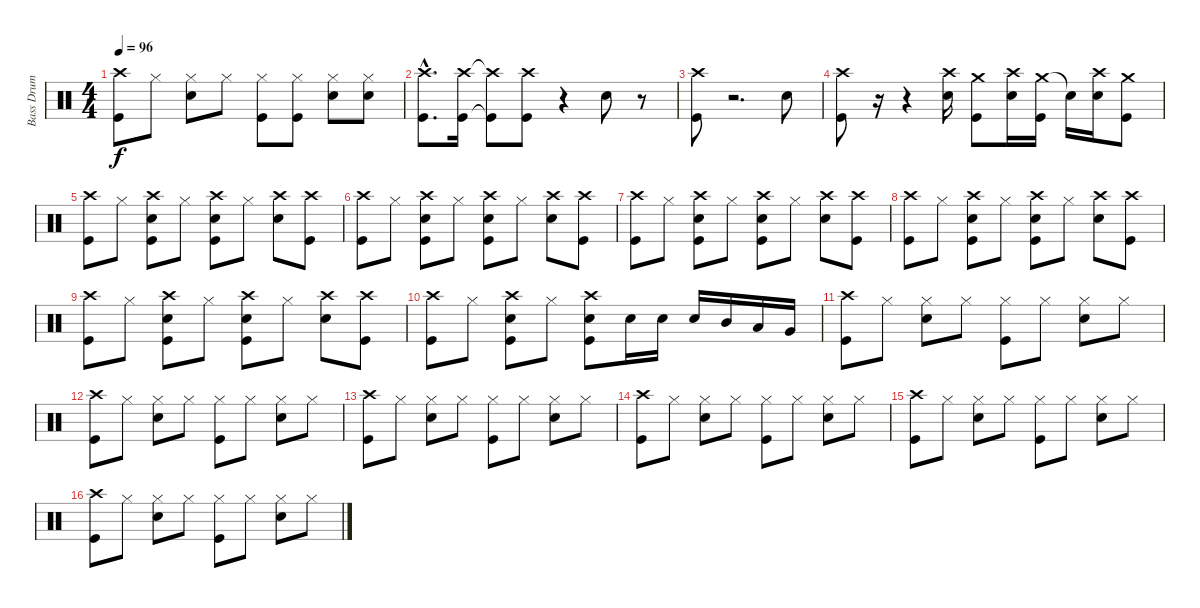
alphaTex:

\track ("Bass Drum" "Bass Drum") {instrument percussion}
\staff {score}
\articulation defaults
\ts (4 4)
\tempo 96
\clef neutral
\ks c
("Crash high (hit)" "Kick (hit)").8{dy f} "Hi-Hat (closed)".8 ("Hi-Hat (closed)" "Electric Snare (hit)").8 "Hi-Hat (closed)".8 ("Hi-Hat (closed)" "Kick (hit)").8 ("Hi-Hat (closed)" "Kick (hit)").8 ("Hi-Hat (closed)" "Electric Snare (hit)").8 ("Hi-Hat (closed)" "Electric Snare (hit)").8 |
("Crash high (hit)"{hac} "Kick (hit)"{hac}).8{d} ("Crash high (hit)" "Kick (hit)").16 ("Crash high (hit)"{t} "Kick (hit)"{t}).8 ("Crash high (hit)" "Kick (hit)").8 r.4 "Electric Snare (hit)".8 r.8 |
("Crash high (hit)" "Kick (hit)").8 r.2{d} "Electric Snare (hit)".8 |
("Crash high (hit)" "Kick (hit)").8 r.16 r.4 ("Crash high (hit)" "Electric Snare (hit)").16 ("Crash medium (hit)" "Kick (hit)").8 ("Crash high (hit)" "Electric Snare (hit)").16 ("Crash medium (hit)" "Kick (hit)").16 "Snare (hit)"{t}.16 ("Crash high (hit)" "Electric Snare (hit)").16 ("Crash medium (hit)" "Kick (hit)").8 |
("Crash high (hit)" "Kick (hit)").8 "Hi-Hat (closed)".8 ("Crash high (hit)" "Electric Snare (hit)" "Kick (hit)").8 "Hi-Hat (closed)".8 ("Crash high (hit)" "Electric Snare (hit)" "Kick (hit)").8 "Hi-Hat (closed)".8 ("Crash high (hit)" "Electric Snare (hit)").8 ("Crash high (hit)" "Kick (hit)").8 |
("Crash high (hit)" "Kick (hit)").8 "Hi-Hat (closed)".8 ("Crash high (hit)" "Electric Snare (hit)" "Kick (hit)").8 "Hi-Hat (closed)".8 ("Crash high (hit)" "Electric Snare (hit)" "Kick (hit)").8 "Hi-Hat (closed)".8 ("Crash high (hit)" "Electric Snare (hit)").8 ("Crash high (hit)" "Kick (hit)").8 |
("Crash high (hit)" "Kick (hit)").8 "Hi-Hat (closed)".8 ("Crash high (hit)" "Electric Snare (hit)" "Kick (hit)").8 "Hi-Hat (closed)".8 ("Crash high (hit)" "Electric Snare (hit)" "Kick (hit)").8 "Hi-Hat (closed)".8 ("Crash high (hit)" "Electric Snare (hit)").8 ("Crash high (hit)" "Kick (hit)").8 |
("Crash high (hit)" "Kick (hit)").8 "Hi-Hat (closed)".8 ("Crash high (hit)" "Electric Snare (hit)" "Kick (hit)").8 "Hi-Hat (closed)".8 ("Crash high (hit)" "Electric Snare (hit)" "Kick (hit)").8 "Hi-Hat (closed)".8 ("Crash high (hit)" "Electric Snare (hit)").8 ("Crash high (hit)" "Kick (hit)").8 |
("Crash high (hit)" "Kick (hit)").8 "Hi-Hat (closed)".8 ("Crash high (hit)" "Electric Snare (hit)" "Kick (hit)").8 "Hi-Hat (closed)".8 ("Crash high (hit)" "Electric Snare (hit)" "Kick (hit)").8 "Hi-Hat (closed)".8 ("Crash high (hit)" "Electric Snare (hit)").8 ("Crash high (hit)" "Kick (hit)").8 |
("Crash high (hit)" "Kick (hit)").8 "Hi-Hat (closed)".8 ("Crash high (hit)" "Electric Snare (hit)" "Kick (hit)").8 "Hi-Hat (closed)".8 ("Crash high (hit)" "Electric Snare (hit)" "Kick (hit)").8 "Electric Snare (hit)".16 "Electric Snare (hit)".16 "Electric Snare (hit)".16 "Mid Tom (hit)".16 "Low Tom (hit)".16 "Very Low Tom (hit)".16 |
("Crash high (hit)" "Kick (hit)").8 "Hi-Hat (closed)".8 ("Hi-Hat (closed)" "Electric Snare (hit)").8 "Hi-Hat (closed)".8 ("Hi-Hat (closed)" "Kick (hit)").8 "Hi-Hat (closed)".8 ("Hi-Hat (closed)" "Electric Snare (hit)").8 "Hi-Hat (closed)".8 |
("Crash high (hit)" "Kick (hit)").8 "Hi-Hat (closed)".8 ("Hi-Hat (closed)" "Electric Snare (hit)").8 "Hi-Hat (closed)".8 ("Hi-Hat (closed)" "Kick (hit)").8 "Hi-Hat (closed)".8 ("Hi-Hat (closed)" "Electric Snare (hit)").8 "Hi-Hat (closed)".8 |
("Crash high (hit)" "Kick (hit)").8 "Hi-Hat (closed)".8 ("Hi-Hat (closed)" "Electric Snare (hit)").8 "Hi-Hat (closed)".8 ("Hi-Hat (closed)" "Kick (hit)").8 "Hi-Hat (closed)".8 ("Hi-Hat (closed)" "Electric Snare (hit)").8 "Hi-Hat (closed)".8 |
("Crash high (hit)" "Kick (hit)").8 "Hi-Hat (closed)".8 ("Hi-Hat (closed)" "Electric Snare (hit)").8 "Hi-Hat (closed)".8 ("Hi-Hat (closed)" "Kick (hit)").8 "Hi-Hat (closed)".8 ("Hi-Hat (closed)" "Electric Snare (hit)").8 "Hi-Hat (closed)".8 |
("Crash high (hit)" "Kick (hit)").8 "Hi-Hat (closed)".8 ("Hi-Hat (closed)" "Electric Snare (hit)").8 "Hi-Hat (closed)".8 ("Hi-Hat (closed)" "Kick (hit)").8 "Hi-Hat (closed)".8 ("Hi-Hat (closed)" "Electric Snare (hit)").8 "Hi-Hat (closed)".8 |
("Crash high (hit)" "Kick (hit)").8 "Hi-Hat (closed)".8 ("Hi-Hat (closed)" "Electric Snare (hit)").8 "Hi-Hat (closed)".8 ("Hi-Hat (closed)" "Kick (hit)").8 "Hi-Hat (closed)".8 ("Hi-Hat (closed)" "Electric Snare (hit)").8 "Hi-Hat (closed)".8
